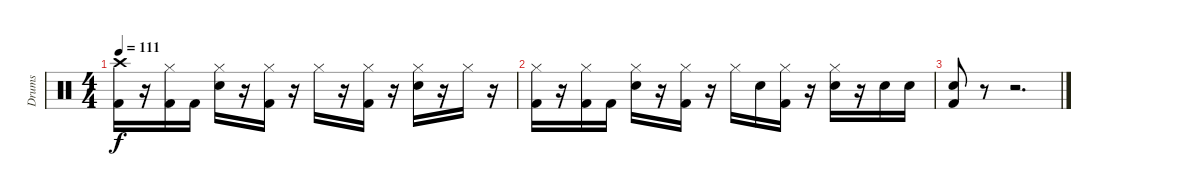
\track ("Drums" "Drums") {instrument percussion}
\staff {score}
\articulation defaults
\ts (4 4)
\tempo 111
\clef neutral
\ks c
("Crash high (hit)" "Kick (hit) 2").16{dy f} r.16 ("Hi-Hat (closed)" "Kick (hit) 2").16 "Kick (hit) 2".16 ("Hi-Hat (closed)" "Snare (hit) 2").16 r.16 ("Hi-Hat (closed)" "Kick (hit) 2").16 r.16 "Hi-Hat (closed)".16 r.16 ("Hi-Hat (closed)" "Kick (hit) 2").16 r.16 ("Hi-Hat (closed)" "Snare (hit) 2").16 r.16 "Hi-Hat (closed)".16 r.16 |
("Hi-Hat (closed)" "Kick (hit) 2").16 r.16 ("Hi-Hat (closed)" "Kick (hit) 2").16 "Kick (hit) 2".16 ("Hi-Hat (closed)" "Snare (hit) 2").16 r.16 ("Hi-Hat (closed)" "Kick (hit) 2").16 r.16 "Hi-Hat (closed)".16 "Snare (hit) 2".16 ("Hi-Hat (closed)" "Kick (hit) 2").16 r.16 ("Hi-Hat (closed)" "Snare (hit) 2").16 r.16 "Snare (hit) 2".16 "Snare (hit) 2".16 |
("Snare (hit) 2" "Kick (hit) 2").8 r.8 r.2{d}
